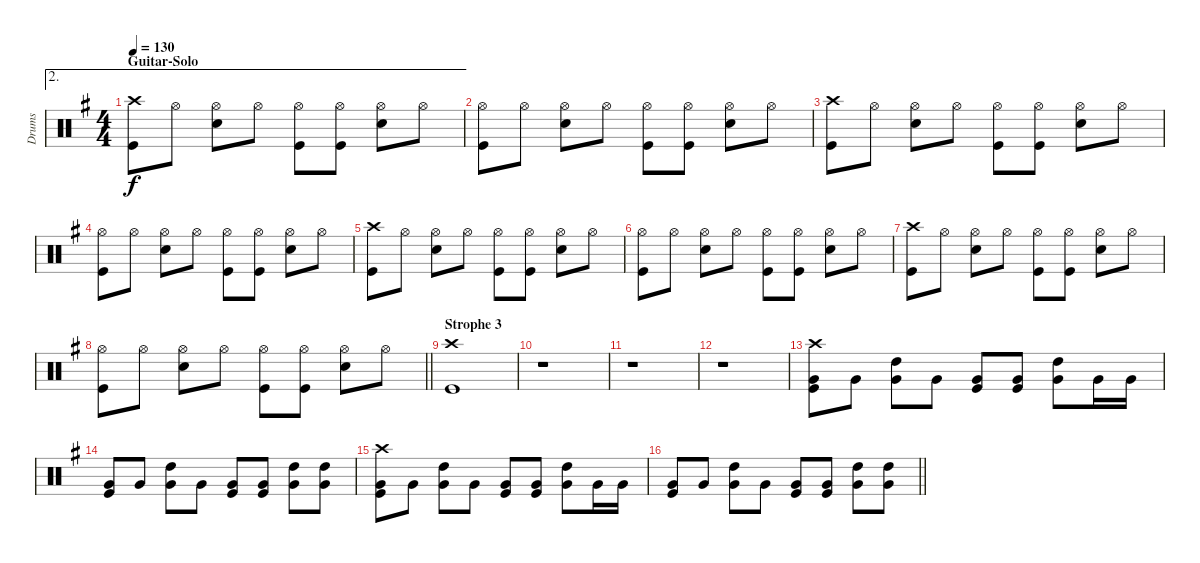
\track ("Drums" "Drums") {instrument percussion}
\staff {score}
\articulation defaults
\ae 2
\ts (4 4)
\section ("" "Guitar-Solo")
\tempo 130
\clef neutral
\ks g
("Crash high (hit)" "Kick (hit)").8{dy f} "Hi-Hat (open)".8 ("Hi-Hat (open)" "Snare (hit) 2").8 "Hi-Hat (open)".8 ("Hi-Hat (open)" "Kick (hit)").8 ("Hi-Hat (open)" "Kick (hit)").8 ("Hi-Hat (open)" "Snare (hit) 2").8 "Hi-Hat (open)".8 |
("Hi-Hat (open)" "Kick (hit)").8 "Hi-Hat (open)".8 ("Hi-Hat (open)" "Snare (hit) 2").8 "Hi-Hat (open)".8 ("Hi-Hat (open)" "Kick (hit)").8 ("Hi-Hat (open)" "Kick (hit)").8 ("Hi-Hat (open)" "Snare (hit) 2").8 "Hi-Hat (open)".8 |
("Crash high (hit)" "Kick (hit)").8 "Hi-Hat (open)".8 ("Hi-Hat (open)" "Snare (hit) 2").8 "Hi-Hat (open)".8 ("Hi-Hat (open)" "Kick (hit)").8 ("Hi-Hat (open)" "Kick (hit)").8 ("Hi-Hat (open)" "Snare (hit) 2").8 "Hi-Hat (open)".8 |
("Hi-Hat (open)" "Kick (hit)").8 "Hi-Hat (open)".8 ("Hi-Hat (open)" "Snare (hit) 2").8 "Hi-Hat (open)".8 ("Hi-Hat (open)" "Kick (hit)").8 ("Hi-Hat (open)" "Kick (hit)").8 ("Hi-Hat (open)" "Snare (hit) 2").8 "Hi-Hat (open)".8 |
("Crash high (hit)" "Kick (hit)").8 "Hi-Hat (open)".8 ("Hi-Hat (open)" "Snare (hit) 2").8 "Hi-Hat (open)".8 ("Hi-Hat (open)" "Kick (hit)").8 ("Hi-Hat (open)" "Kick (hit)").8 ("Hi-Hat (open)" "Snare (hit) 2").8 "Hi-Hat (open)".8 |
("Hi-Hat (open)" "Kick (hit)").8 "Hi-Hat (open)".8 ("Hi-Hat (open)" "Snare (hit) 2").8 "Hi-Hat (open)".8 ("Hi-Hat (open)" "Kick (hit)").8 ("Hi-Hat (open)" "Kick (hit)").8 ("Hi-Hat (open)" "Snare (hit) 2").8 "Hi-Hat (open)".8 |
("Crash high (hit)" "Kick (hit)").8 "Hi-Hat (open)".8 ("Hi-Hat (open)" "Snare (hit) 2").8 "Hi-Hat (open)".8 ("Hi-Hat (open)" "Kick (hit)").8 ("Hi-Hat (open)" "Kick (hit)").8 ("Hi-Hat (open)" "Snare (hit) 2").8 "Hi-Hat (open)".8 |
\barLineRight lightlight
("Hi-Hat (open)" "Kick (hit)").8 "Hi-Hat (open)".8 ("Hi-Hat (open)" "Snare (hit) 2").8 "Hi-Hat (open)".8 ("Hi-Hat (open)" "Kick (hit)").8 ("Hi-Hat (open)" "Kick (hit)").8 ("Hi-Hat (open)" "Snare (hit) 2").8 "Hi-Hat (open)".8 |
\section ("" "Strophe 3")
("Crash high (hit)" "Kick (hit)").1 |
r.1 |
r.1 |
r.1 |
("Crash high (hit)" "Kick (hit)" "Very Low Tom (hit)").8 "Very Low Tom (hit)".8 ("High Tom (hit)" "Very Low Tom (hit)").8 "Very Low Tom (hit)".8 ("Kick (hit)" "Very Low Tom (hit)").8 ("Kick (hit)" "Very Low Tom (hit)").8 ("High Tom (hit)" "Very Low Tom (hit)").8 "Very Low Tom (hit)".16 "Very Low Tom (hit)".16 |
("Kick (hit)" "Very Low Tom (hit)").8 "Very Low Tom (hit)".8 ("High Tom (hit)" "Very Low Tom (hit)").8 "Very Low Tom (hit)".8 ("Kick (hit)" "Very Low Tom (hit)").8 ("Kick (hit)" "Very Low Tom (hit)").8 ("High Tom (hit)" "Very Low Tom (hit)").8 ("High Tom (hit)" "Very Low Tom (hit)").8 |
("Crash high (hit)" "Kick (hit)" "Very Low Tom (hit)").8 "Very Low Tom (hit)".8 ("High Tom (hit)" "Very Low Tom (hit)").8 "Very Low Tom (hit)".8 ("Kick (hit)" "Very Low Tom (hit)").8 ("Kick (hit)" "Very Low Tom (hit)").8 ("High Tom (hit)" "Very Low Tom (hit)").8 "Very Low Tom (hit)".16 "Very Low Tom (hit)".16 |
\barLineRight lightlight
("Kick (hit)" "Very Low Tom (hit)").8 "Very Low Tom (hit)".8 ("High Tom (hit)" "Very Low Tom (hit)").8 "Very Low Tom (hit)".8 ("Kick (hit)" "Very Low Tom (hit)").8 ("Kick (hit)" "Very Low Tom (hit)").8 ("High Tom (hit)" "Very Low Tom (hit)").8 ("High Tom (hit)" "Very Low Tom (hit)").8
